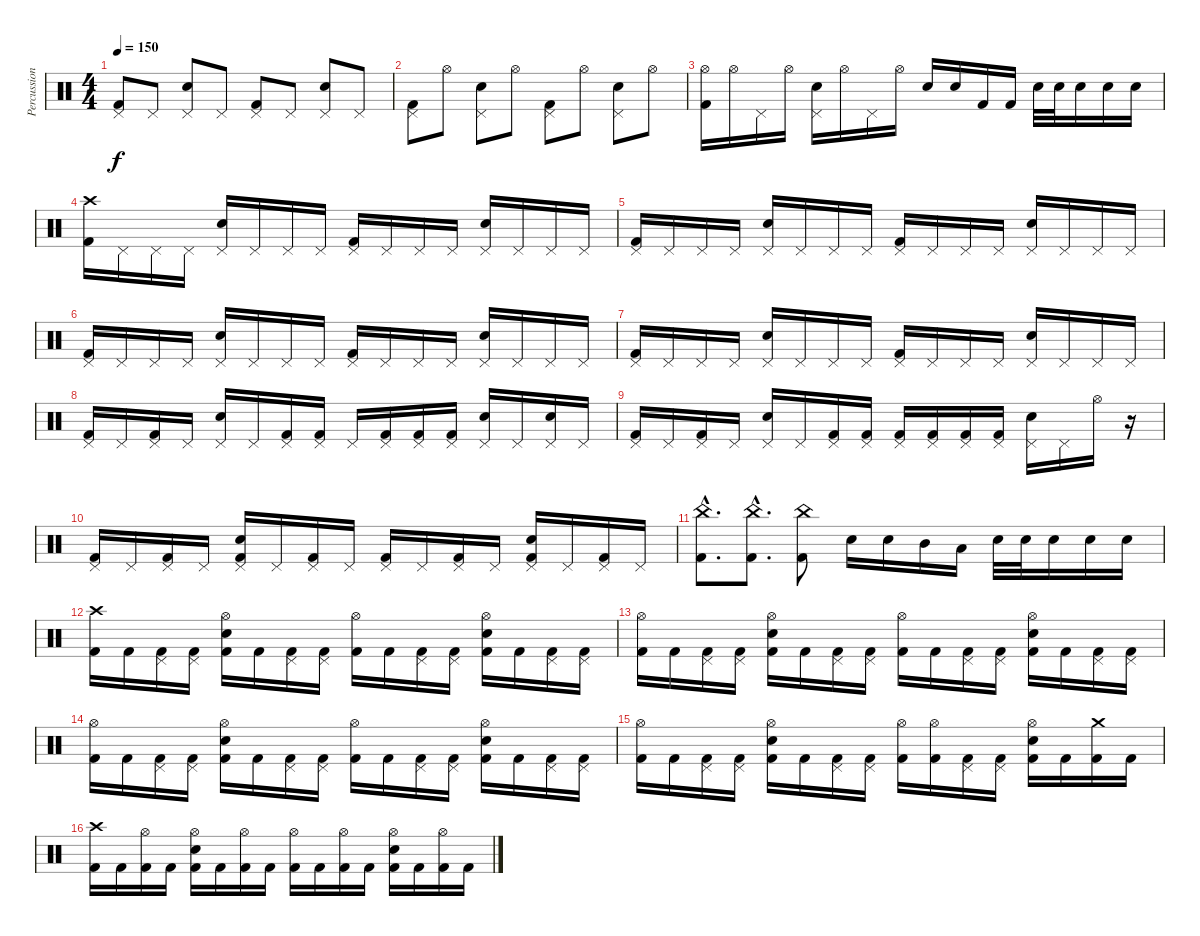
\track ("Percussion" "Percussion") {instrument percussion}
\staff {score}
\articulation defaults
\ts (4 4)
\tempo 150
\clef neutral
\ks c
("Pedal Hi-Hat (hit)" "Kick (hit) 2").8{dy f} "Pedal Hi-Hat (hit)".8 ("Pedal Hi-Hat (hit)" "Snare (hit) 2").8 "Pedal Hi-Hat (hit)".8 ("Pedal Hi-Hat (hit)" "Kick (hit) 2").8 "Pedal Hi-Hat (hit)".8 ("Pedal Hi-Hat (hit)" "Snare (hit) 2").8 "Pedal Hi-Hat (hit)".8 |
("Pedal Hi-Hat (hit)" "Kick (hit) 2").8 "Hi-Hat (open)".8 ("Pedal Hi-Hat (hit)" "Snare (hit) 2").8 "Hi-Hat (open)".8 ("Pedal Hi-Hat (hit)" "Kick (hit) 2").8 "Hi-Hat (open)".8 ("Pedal Hi-Hat (hit)" "Snare (hit) 2").8 "Hi-Hat (open)".8 |
("Hi-Hat (open)" "Kick (hit) 2").16 "Hi-Hat (open)".16 "Pedal Hi-Hat (hit)".16 "Hi-Hat (open)".16 ("Pedal Hi-Hat (hit)" "Snare (hit) 2").16 "Hi-Hat (open)".16 "Pedal Hi-Hat (hit)".16 "Hi-Hat (open)".16 "Snare (hit) 2".16 "Snare (hit) 2".16 "Kick (hit) 2".16 "Kick (hit) 2".16 "Snare (hit) 2".32 "Snare (hit) 2".32 "Snare (hit) 2".16 "Snare (hit) 2".16 "Snare (hit) 2".16 |
("Crash high (hit)" "Kick (hit) 2").16 "Pedal Hi-Hat (hit)".16 "Pedal Hi-Hat (hit)".16 "Pedal Hi-Hat (hit)".16 ("Pedal Hi-Hat (hit)" "Snare (hit) 2").16 "Pedal Hi-Hat (hit)".16 "Pedal Hi-Hat (hit)".16 "Pedal Hi-Hat (hit)".16 ("Pedal Hi-Hat (hit)" "Kick (hit) 2").16 "Pedal Hi-Hat (hit)".16 "Pedal Hi-Hat (hit)".16 "Pedal Hi-Hat (hit)".16 ("Pedal Hi-Hat (hit)" "Snare (hit) 2").16 "Pedal Hi-Hat (hit)".16 "Pedal Hi-Hat (hit)".16 "Pedal Hi-Hat (hit)".16 |
("Pedal Hi-Hat (hit)" "Kick (hit) 2").16 "Pedal Hi-Hat (hit)".16 "Pedal Hi-Hat (hit)".16 "Pedal Hi-Hat (hit)".16 ("Pedal Hi-Hat (hit)" "Snare (hit) 2").16 "Pedal Hi-Hat (hit)".16 "Pedal Hi-Hat (hit)".16 "Pedal Hi-Hat (hit)".16 ("Pedal Hi-Hat (hit)" "Kick (hit) 2").16 "Pedal Hi-Hat (hit)".16 "Pedal Hi-Hat (hit)".16 "Pedal Hi-Hat (hit)".16 ("Pedal Hi-Hat (hit)" "Snare (hit) 2").16 "Pedal Hi-Hat (hit)".16 "Pedal Hi-Hat (hit)".16 "Pedal Hi-Hat (hit)".16 |
("Pedal Hi-Hat (hit)" "Kick (hit) 2").16 "Pedal Hi-Hat (hit)".16 "Pedal Hi-Hat (hit)".16 "Pedal Hi-Hat (hit)".16 ("Pedal Hi-Hat (hit)" "Snare (hit) 2").16 "Pedal Hi-Hat (hit)".16 "Pedal Hi-Hat (hit)".16 "Pedal Hi-Hat (hit)".16 ("Pedal Hi-Hat (hit)" "Kick (hit) 2").16 "Pedal Hi-Hat (hit)".16 "Pedal Hi-Hat (hit)".16 "Pedal Hi-Hat (hit)".16 ("Pedal Hi-Hat (hit)" "Snare (hit) 2").16 "Pedal Hi-Hat (hit)".16 "Pedal Hi-Hat (hit)".16 "Pedal Hi-Hat (hit)".16 |
("Pedal Hi-Hat (hit)" "Kick (hit) 2").16 "Pedal Hi-Hat (hit)".16 "Pedal Hi-Hat (hit)".16 "Pedal Hi-Hat (hit)".16 ("Pedal Hi-Hat (hit)" "Snare (hit) 2").16 "Pedal Hi-Hat (hit)".16 "Pedal Hi-Hat (hit)".16 "Pedal Hi-Hat (hit)".16 ("Pedal Hi-Hat (hit)" "Kick (hit) 2").16 "Pedal Hi-Hat (hit)".16 "Pedal Hi-Hat (hit)".16 "Pedal Hi-Hat (hit)".16 ("Pedal Hi-Hat (hit)" "Snare (hit) 2").16 "Pedal Hi-Hat (hit)".16 "Pedal Hi-Hat (hit)".16 "Pedal Hi-Hat (hit)".16 |
("Pedal Hi-Hat (hit)" "Kick (hit) 2").16 "Pedal Hi-Hat (hit)".16 ("Pedal Hi-Hat (hit)" "Kick (hit) 2").16 "Pedal Hi-Hat (hit)".16 ("Pedal Hi-Hat (hit)" "Snare (hit) 2").16 "Pedal Hi-Hat (hit)".16 ("Pedal Hi-Hat (hit)" "Kick (hit) 2").16 ("Pedal Hi-Hat (hit)" "Kick (hit) 2").16 "Pedal Hi-Hat (hit)".16 ("Pedal Hi-Hat (hit)" "Kick (hit) 2").16 ("Pedal Hi-Hat (hit)" "Kick (hit) 2").16 ("Pedal Hi-Hat (hit)" "Kick (hit) 2").16 ("Pedal Hi-Hat (hit)" "Snare (hit) 2").16 "Pedal Hi-Hat (hit)".16 ("Pedal Hi-Hat (hit)" "Snare (hit) 2").16 "Pedal Hi-Hat (hit)".16 |
("Pedal Hi-Hat (hit)" "Kick (hit) 2").16 "Pedal Hi-Hat (hit)".16 ("Pedal Hi-Hat (hit)" "Kick (hit) 2").16 "Pedal Hi-Hat (hit)".16 ("Pedal Hi-Hat (hit)" "Snare (hit) 2").16 "Pedal Hi-Hat (hit)".16 ("Pedal Hi-Hat (hit)" "Kick (hit) 2").16 ("Pedal Hi-Hat (hit)" "Kick (hit) 2").16 ("Pedal Hi-Hat (hit)" "Kick (hit) 2").16 ("Pedal Hi-Hat (hit)" "Kick (hit) 2").16 ("Pedal Hi-Hat (hit)" "Kick (hit) 2").16 ("Pedal Hi-Hat (hit)" "Kick (hit) 2").16 ("Pedal Hi-Hat (hit)" "Snare (hit) 2").16 "Pedal Hi-Hat (hit)".16 "Hi-Hat (open)".16 r.16 |
("Pedal Hi-Hat (hit)" "Kick (hit) 2").16 "Pedal Hi-Hat (hit)".16 ("Pedal Hi-Hat (hit)" "Kick (hit) 2").16 "Pedal Hi-Hat (hit)".16 ("Pedal Hi-Hat (hit)" "Snare (hit) 2" "Kick (hit) 2").16 "Pedal Hi-Hat (hit)".16 ("Pedal Hi-Hat (hit)" "Kick (hit) 2").16 "Pedal Hi-Hat (hit)".16 ("Pedal Hi-Hat (hit)" "Kick (hit) 2").16 "Pedal Hi-Hat (hit)".16 ("Pedal Hi-Hat (hit)" "Kick (hit) 2").16 "Pedal Hi-Hat (hit)".16 ("Pedal Hi-Hat (hit)" "Snare (hit) 2" "Kick (hit) 2").16 "Pedal Hi-Hat (hit)".16 ("Pedal Hi-Hat (hit)" "Kick (hit) 2").16 "Pedal Hi-Hat (hit)".16 |
("China (hit)"{hac} "Kick (hit) 2"{hac}).8{d} ("China (hit)"{hac} "Kick (hit) 2"{hac}).8{d} ("China (hit)" "Kick (hit) 2").8 "Snare (hit) 2".16 "Snare (hit) 2".16 "Mid Tom (hit)".16 "Low Tom (hit)".16 "Snare (hit) 2".32 "Snare (hit) 2".32 "Snare (hit) 2".16 "Snare (hit) 2".16 "Snare (hit) 2".16 |
("Crash high (hit)" "Kick (hit) 2").16 "Kick (hit) 2".16 ("Pedal Hi-Hat (hit)" "Kick (hit) 2").16 ("Pedal Hi-Hat (hit)" "Kick (hit) 2").16 ("Hi-Hat (open)" "Snare (hit) 2" "Kick (hit) 2").16 "Kick (hit) 2".16 ("Pedal Hi-Hat (hit)" "Kick (hit) 2").16 ("Pedal Hi-Hat (hit)" "Kick (hit) 2").16 ("Hi-Hat (open)" "Kick (hit) 2").16 "Kick (hit) 2".16 ("Pedal Hi-Hat (hit)" "Kick (hit) 2").16 ("Pedal Hi-Hat (hit)" "Kick (hit) 2").16 ("Hi-Hat (open)" "Snare (hit) 2" "Kick (hit) 2").16 "Kick (hit) 2".16 ("Pedal Hi-Hat (hit)" "Kick (hit) 2").16 ("Pedal Hi-Hat (hit)" "Kick (hit) 2").16 |
("Hi-Hat (open)" "Kick (hit) 2").16 "Kick (hit) 2".16 ("Pedal Hi-Hat (hit)" "Kick (hit) 2").16 ("Pedal Hi-Hat (hit)" "Kick (hit) 2").16 ("Hi-Hat (open)" "Snare (hit) 2" "Kick (hit) 2").16 "Kick (hit) 2".16 ("Pedal Hi-Hat (hit)" "Kick (hit) 2").16 ("Pedal Hi-Hat (hit)" "Kick (hit) 2").16 ("Hi-Hat (open)" "Kick (hit) 2").16 "Kick (hit) 2".16 ("Pedal Hi-Hat (hit)" "Kick (hit) 2").16 ("Pedal Hi-Hat (hit)" "Kick (hit) 2").16 ("Hi-Hat (open)" "Snare (hit) 2" "Kick (hit) 2").16 "Kick (hit) 2".16 ("Pedal Hi-Hat (hit)" "Kick (hit) 2").16 ("Pedal Hi-Hat (hit)" "Kick (hit) 2").16 |
("Hi-Hat (open)" "Kick (hit) 2").16 "Kick (hit) 2".16 ("Pedal Hi-Hat (hit)" "Kick (hit) 2").16 ("Pedal Hi-Hat (hit)" "Kick (hit) 2").16 ("Hi-Hat (open)" "Snare (hit) 2" "Kick (hit) 2").16 "Kick (hit) 2".16 ("Pedal Hi-Hat (hit)" "Kick (hit) 2").16 ("Pedal Hi-Hat (hit)" "Kick (hit) 2").16 ("Hi-Hat (open)" "Kick (hit) 2").16 "Kick (hit) 2".16 ("Pedal Hi-Hat (hit)" "Kick (hit) 2").16 ("Pedal Hi-Hat (hit)" "Kick (hit) 2").16 ("Hi-Hat (open)" "Snare (hit) 2" "Kick (hit) 2").16 "Kick (hit) 2".16 ("Pedal Hi-Hat (hit)" "Kick (hit) 2").16 ("Pedal Hi-Hat (hit)" "Kick (hit) 2").16 |
("Hi-Hat (open)" "Kick (hit) 2").16 "Kick (hit) 2".16 ("Pedal Hi-Hat (hit)" "Kick (hit) 2").16 ("Pedal Hi-Hat (hit)" "Kick (hit) 2").16 ("Hi-Hat (open)" "Snare (hit) 2" "Kick (hit) 2").16 "Kick (hit) 2".16 ("Pedal Hi-Hat (hit)" "Kick (hit) 2").16 ("Pedal Hi-Hat (hit)" "Kick (hit) 2").16 ("Hi-Hat (open)" "Kick (hit) 2").16 ("Hi-Hat (open)" "Kick (hit) 2").16 ("Pedal Hi-Hat (hit)" "Kick (hit) 2").16 ("Pedal Hi-Hat (hit)" "Kick (hit) 2").16 ("Hi-Hat (open)" "Snare (hit) 2" "Kick (hit) 2").16 "Kick (hit) 2".16 ("Crash medium (hit)" "Kick (hit) 2").16 "Kick (hit) 2".16 |
("Crash high (hit)" "Kick (hit) 2").16 "Kick (hit) 2".16 ("Hi-Hat (open)" "Kick (hit) 2").16 "Kick (hit) 2".16 ("Hi-Hat (open)" "Snare (hit) 2" "Kick (hit) 2").16 "Kick (hit) 2".16 ("Hi-Hat (open)" "Kick (hit) 2").16 "Kick (hit) 2".16 ("Hi-Hat (open)" "Kick (hit) 2").16 "Kick (hit) 2".16 ("Hi-Hat (open)" "Kick (hit) 2").16 "Kick (hit) 2".16 ("Hi-Hat (open)" "Snare (hit) 2" "Kick (hit) 2").16 "Kick (hit) 2".16 ("Hi-Hat (open)" "Kick (hit) 2").16 "Kick (hit) 2".16
